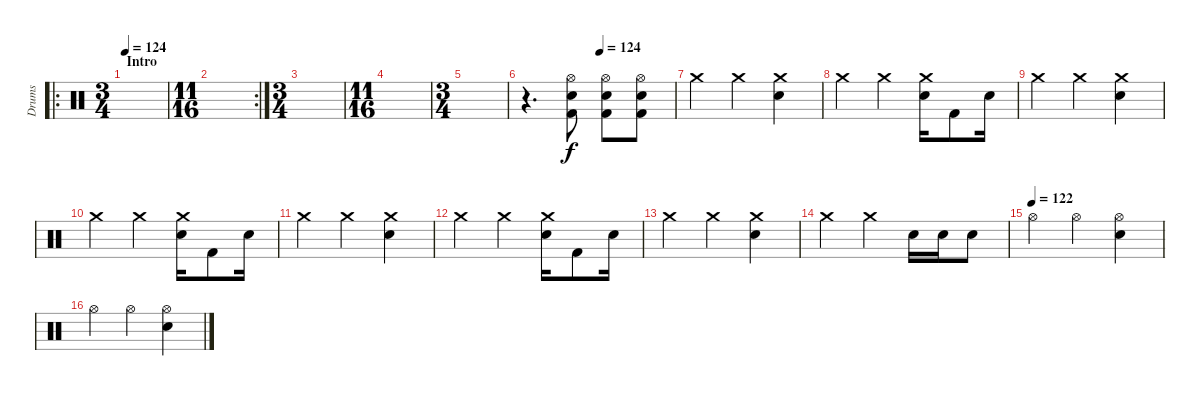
\track ("Drums" "Drums") {instrument percussion}
\staff {score}
\articulation defaults
\ro
\ts (3 4)
\section ("" "Intro")
\tempo 124
\tempo 128
\tempo 124
\clef neutral
\ks c
|
\rc 2
\ts (11 16)
|
\ts (3 4)
|
\ts (11 16)
|
\ts (3 4)
|
\tempo (124 0.5)
r.4{d} ("Electric Snare (hit)" "Kick (hit) 2" "Hi-Hat (open)").8 ("Electric Snare (hit)" "Kick (hit) 2" "Hi-Hat (open)").8 ("Electric Snare (hit)" "Kick (hit) 2" "Hi-Hat (open)").8 |
"Crash medium (hit)".4 "Crash medium (hit)".4 ("Electric Snare (hit)" "Crash medium (hit)").4 |
"Crash medium (hit)".4 "Crash medium (hit)".4 ("Electric Snare (hit)" "Crash medium (hit)").16 "Kick (hit) 2".8 "Electric Snare (hit)".16 |
"Crash medium (hit)".4 "Crash medium (hit)".4 ("Electric Snare (hit)" "Crash medium (hit)").4 |
"Crash medium (hit)".4 "Crash medium (hit)".4 ("Electric Snare (hit)" "Crash medium (hit)").16 "Kick (hit) 2".8 "Electric Snare (hit)".16 |
"Crash medium (hit)".4 "Crash medium (hit)".4 ("Electric Snare (hit)" "Crash medium (hit)").4 |
"Crash medium (hit)".4 "Crash medium (hit)".4 ("Electric Snare (hit)" "Crash medium (hit)").16 "Kick (hit) 2".8 "Electric Snare (hit)".16 |
"Crash medium (hit)".4 "Crash medium (hit)".4 ("Electric Snare (hit)" "Crash medium (hit)").4 |
"Crash medium (hit)".4 "Crash medium (hit)".4 "Electric Snare (hit)".16 "Electric Snare (hit)".16 "Electric Snare (hit)".8 |
\tempo (122)
"Hi-Hat (open)".4 "Hi-Hat (open)".4 ("Electric Snare (hit)" "Hi-Hat (open)").4 |
"Hi-Hat (open)".4 "Hi-Hat (open)".4 ("Electric Snare (hit)" "Hi-Hat (open)").4
